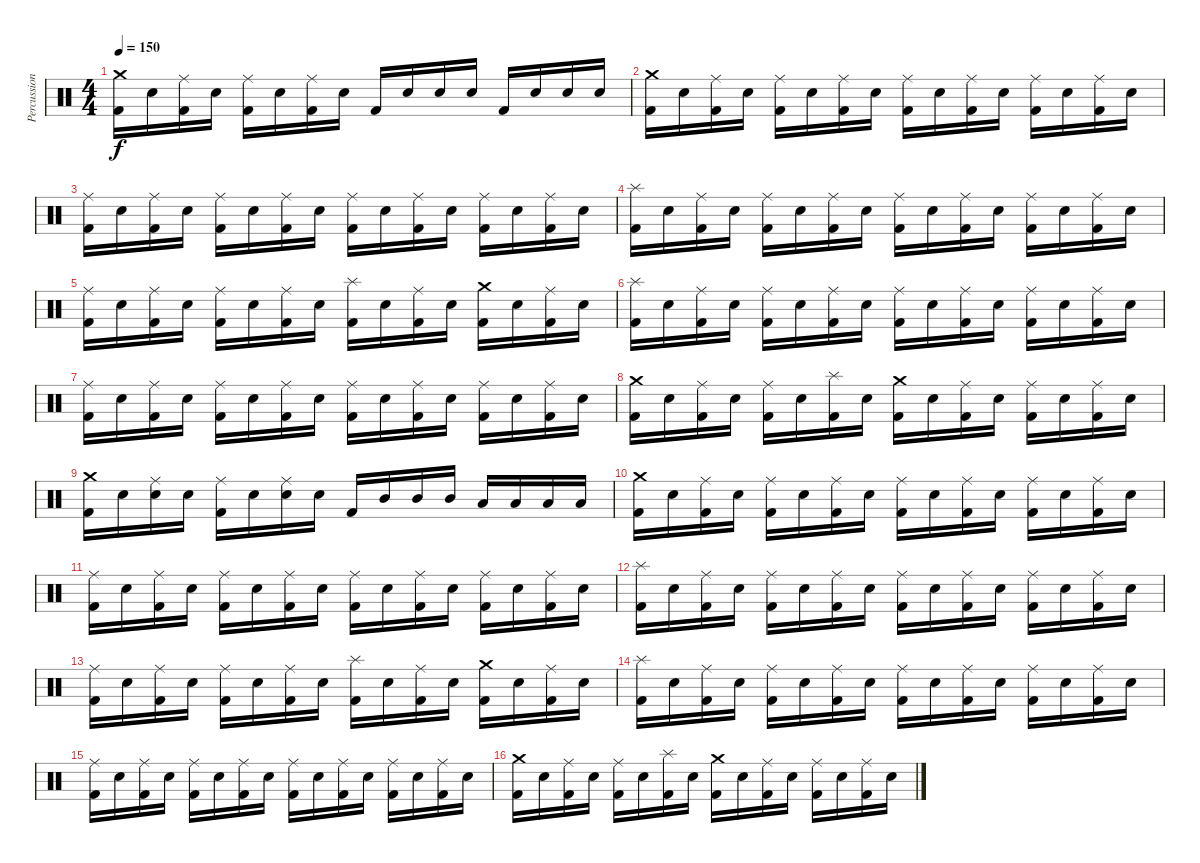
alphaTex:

\track ("Percussions" "Percussion") {instrument percussion}
\staff {score}
\articulation defaults
\ts (4 4)
\tempo 150
\clef neutral
\ks c
("Crash medium (hit)" "Kick (hit) 2").16{dy f} "Snare (hit) 2".16 ("Ride (middle)" "Kick (hit) 2").16 "Snare (hit) 2".16 ("Ride (middle)" "Kick (hit) 2").16 "Snare (hit) 2".16 ("Ride (middle)" "Kick (hit) 2").16 "Snare (hit) 2".16 "Kick (hit) 2".16 "Snare (hit) 2".16 "Snare (hit) 2".16 "Snare (hit) 2".16 "Kick (hit) 2".16 "Snare (hit) 2".16 "Snare (hit) 2".16 "Snare (hit) 2".16 |
("Crash medium (hit)" "Kick (hit) 2").16 "Snare (hit) 2".16 ("Ride (middle)" "Kick (hit) 2").16 "Snare (hit) 2".16 ("Ride (middle)" "Kick (hit) 2").16 "Snare (hit) 2".16 ("Ride (middle)" "Kick (hit) 2").16 "Snare (hit) 2".16 ("Ride (middle)" "Kick (hit) 2").16 "Snare (hit) 2".16 ("Ride (middle)" "Kick (hit) 2").16 "Snare (hit) 2".16 ("Ride (middle)" "Kick (hit) 2").16 "Snare (hit) 2".16 ("Ride (middle)" "Kick (hit) 2").16 "Snare (hit) 2".16 |
("Ride (middle)" "Kick (hit) 2").16 "Snare (hit) 2".16 ("Ride (middle)" "Kick (hit) 2").16 "Snare (hit) 2".16 ("Ride (middle)" "Kick (hit) 2").16 "Snare (hit) 2".16 ("Ride (middle)" "Kick (hit) 2").16 "Snare (hit) 2".16 ("Ride (middle)" "Kick (hit) 2").16 "Snare (hit) 2".16 ("Ride (middle)" "Kick (hit) 2").16 "Snare (hit) 2".16 ("Ride (middle)" "Kick (hit) 2").16 "Snare (hit) 2".16 ("Ride (middle)" "Kick (hit) 2").16 "Snare (hit) 2".16 |
("Splash (hit)" "Kick (hit) 2").16 "Snare (hit) 2".16 ("Ride (middle)" "Kick (hit) 2").16 "Snare (hit) 2".16 ("Ride (middle)" "Kick (hit) 2").16 "Snare (hit) 2".16 ("Ride (middle)" "Kick (hit) 2").16 "Snare (hit) 2".16 ("Ride (middle)" "Kick (hit) 2").16 "Snare (hit) 2".16 ("Ride (middle)" "Kick (hit) 2").16 "Snare (hit) 2".16 ("Ride (middle)" "Kick (hit) 2").16 "Snare (hit) 2".16 ("Ride (middle)" "Kick (hit) 2").16 "Snare (hit) 2".16 |
("Ride (middle)" "Kick (hit) 2").16 "Snare (hit) 2".16 ("Ride (middle)" "Kick (hit) 2").16 "Snare (hit) 2".16 ("Ride (middle)" "Kick (hit) 2").16 "Snare (hit) 2".16 ("Ride (middle)" "Kick (hit) 2").16 "Snare (hit) 2".16 ("Splash (hit)" "Kick (hit) 2").16 "Snare (hit) 2".16 ("Ride (middle)" "Kick (hit) 2").16 "Snare (hit) 2".16 ("Crash medium (hit)" "Kick (hit) 2").16 "Snare (hit) 2".16 ("Ride (middle)" "Kick (hit) 2").16 "Snare (hit) 2".16 |
("Splash (hit)" "Kick (hit) 2").16 "Snare (hit) 2".16 ("Ride (middle)" "Kick (hit) 2").16 "Snare (hit) 2".16 ("Ride (middle)" "Kick (hit) 2").16 "Snare (hit) 2".16 ("Ride (middle)" "Kick (hit) 2").16 "Snare (hit) 2".16 ("Ride (middle)" "Kick (hit) 2").16 "Snare (hit) 2".16 ("Ride (middle)" "Kick (hit) 2").16 "Snare (hit) 2".16 ("Ride (middle)" "Kick (hit) 2").16 "Snare (hit) 2".16 ("Ride (middle)" "Kick (hit) 2").16 "Snare (hit) 2".16 |
("Ride (middle)" "Kick (hit) 2").16 "Snare (hit) 2".16 ("Ride (middle)" "Kick (hit) 2").16 "Snare (hit) 2".16 ("Ride (middle)" "Kick (hit) 2").16 "Snare (hit) 2".16 ("Ride (middle)" "Kick (hit) 2").16 "Snare (hit) 2".16 ("Ride (middle)" "Kick (hit) 2").16 "Snare (hit) 2".16 ("Ride (middle)" "Kick (hit) 2").16 "Snare (hit) 2".16 ("Ride (middle)" "Kick (hit) 2").16 "Snare (hit) 2".16 ("Ride (middle)" "Kick (hit) 2").16 "Snare (hit) 2".16 |
("Crash medium (hit)" "Kick (hit) 2").16 "Snare (hit) 2".16 ("Ride (middle)" "Kick (hit) 2").16 "Snare (hit) 2".16 ("Ride (middle)" "Kick (hit) 2").16 "Snare (hit) 2".16 ("Splash (hit)" "Kick (hit) 2").16 "Snare (hit) 2".16 ("Crash medium (hit)" "Kick (hit) 2").16 "Snare (hit) 2".16 ("Ride (middle)" "Kick (hit) 2").16 "Snare (hit) 2".16 ("Ride (middle)" "Kick (hit) 2").16 "Snare (hit) 2".16 ("Ride (middle)" "Kick (hit) 2").16 "Snare (hit) 2".16 |
("Crash medium (hit)" "Kick (hit) 2").16 "Snare (hit) 2".16 ("Ride (middle)" "Snare (hit) 2").16 "Snare (hit) 2".16 ("Ride (middle)" "Kick (hit) 2").16 "Snare (hit) 2".16 ("Ride (middle)" "Snare (hit) 2").16 "Snare (hit) 2".16 "Kick (hit) 2".16 "Mid Tom (hit)".16 "Mid Tom (hit)".16 "Mid Tom (hit)".16 "Low Tom (hit)".16 "Low Tom (hit)".16 "Low Tom (hit)".16 "Low Tom (hit)".16 |
("Crash medium (hit)" "Kick (hit) 2").16 "Snare (hit) 2".16 ("Ride (middle)" "Kick (hit) 2").16 "Snare (hit) 2".16 ("Ride (middle)" "Kick (hit) 2").16 "Snare (hit) 2".16 ("Ride (middle)" "Kick (hit) 2").16 "Snare (hit) 2".16 ("Ride (middle)" "Kick (hit) 2").16 "Snare (hit) 2".16 ("Ride (middle)" "Kick (hit) 2").16 "Snare (hit) 2".16 ("Ride (middle)" "Kick (hit) 2").16 "Snare (hit) 2".16 ("Ride (middle)" "Kick (hit) 2").16 "Snare (hit) 2".16 |
("Ride (middle)" "Kick (hit) 2").16 "Snare (hit) 2".16 ("Ride (middle)" "Kick (hit) 2").16 "Snare (hit) 2".16 ("Ride (middle)" "Kick (hit) 2").16 "Snare (hit) 2".16 ("Ride (middle)" "Kick (hit) 2").16 "Snare (hit) 2".16 ("Ride (middle)" "Kick (hit) 2").16 "Snare (hit) 2".16 ("Ride (middle)" "Kick (hit) 2").16 "Snare (hit) 2".16 ("Ride (middle)" "Kick (hit) 2").16 "Snare (hit) 2".16 ("Ride (middle)" "Kick (hit) 2").16 "Snare (hit) 2".16 |
("Splash (hit)" "Kick (hit) 2").16 "Snare (hit) 2".16 ("Ride (middle)" "Kick (hit) 2").16 "Snare (hit) 2".16 ("Ride (middle)" "Kick (hit) 2").16 "Snare (hit) 2".16 ("Ride (middle)" "Kick (hit) 2").16 "Snare (hit) 2".16 ("Ride (middle)" "Kick (hit) 2").16 "Snare (hit) 2".16 ("Ride (middle)" "Kick (hit) 2").16 "Snare (hit) 2".16 ("Ride (middle)" "Kick (hit) 2").16 "Snare (hit) 2".16 ("Ride (middle)" "Kick (hit) 2").16 "Snare (hit) 2".16 |
("Ride (middle)" "Kick (hit) 2").16 "Snare (hit) 2".16 ("Ride (middle)" "Kick (hit) 2").16 "Snare (hit) 2".16 ("Ride (middle)" "Kick (hit) 2").16 "Snare (hit) 2".16 ("Ride (middle)" "Kick (hit) 2").16 "Snare (hit) 2".16 ("Splash (hit)" "Kick (hit) 2").16 "Snare (hit) 2".16 ("Ride (middle)" "Kick (hit) 2").16 "Snare (hit) 2".16 ("Crash medium (hit)" "Kick (hit) 2").16 "Snare (hit) 2".16 ("Ride (middle)" "Kick (hit) 2").16 "Snare (hit) 2".16 |
("Splash (hit)" "Kick (hit) 2").16 "Snare (hit) 2".16 ("Ride (middle)" "Kick (hit) 2").16 "Snare (hit) 2".16 ("Ride (middle)" "Kick (hit) 2").16 "Snare (hit) 2".16 ("Ride (middle)" "Kick (hit) 2").16 "Snare (hit) 2".16 ("Ride (middle)" "Kick (hit) 2").16 "Snare (hit) 2".16 ("Ride (middle)" "Kick (hit) 2").16 "Snare (hit) 2".16 ("Ride (middle)" "Kick (hit) 2").16 "Snare (hit) 2".16 ("Ride (middle)" "Kick (hit) 2").16 "Snare (hit) 2".16 |
("Ride (middle)" "Kick (hit) 2").16 "Snare (hit) 2".16 ("Ride (middle)" "Kick (hit) 2").16 "Snare (hit) 2".16 ("Ride (middle)" "Kick (hit) 2").16 "Snare (hit) 2".16 ("Ride (middle)" "Kick (hit) 2").16 "Snare (hit) 2".16 ("Ride (middle)" "Kick (hit) 2").16 "Snare (hit) 2".16 ("Ride (middle)" "Kick (hit) 2").16 "Snare (hit) 2".16 ("Ride (middle)" "Kick (hit) 2").16 "Snare (hit) 2".16 ("Ride (middle)" "Kick (hit) 2").16 "Snare (hit) 2".16 |
("Crash medium (hit)" "Kick (hit) 2").16 "Snare (hit) 2".16 ("Ride (middle)" "Kick (hit) 2").16 "Snare (hit) 2".16 ("Ride (middle)" "Kick (hit) 2").16 "Snare (hit) 2".16 ("Splash (hit)" "Kick (hit) 2").16 "Snare (hit) 2".16 ("Crash medium (hit)" "Kick (hit) 2").16 "Snare (hit) 2".16 ("Ride (middle)" "Kick (hit) 2").16 "Snare (hit) 2".16 ("Ride (middle)" "Kick (hit) 2").16 "Snare (hit) 2".16 ("Ride (middle)" "Kick (hit) 2").16 "Snare (hit) 2".16
